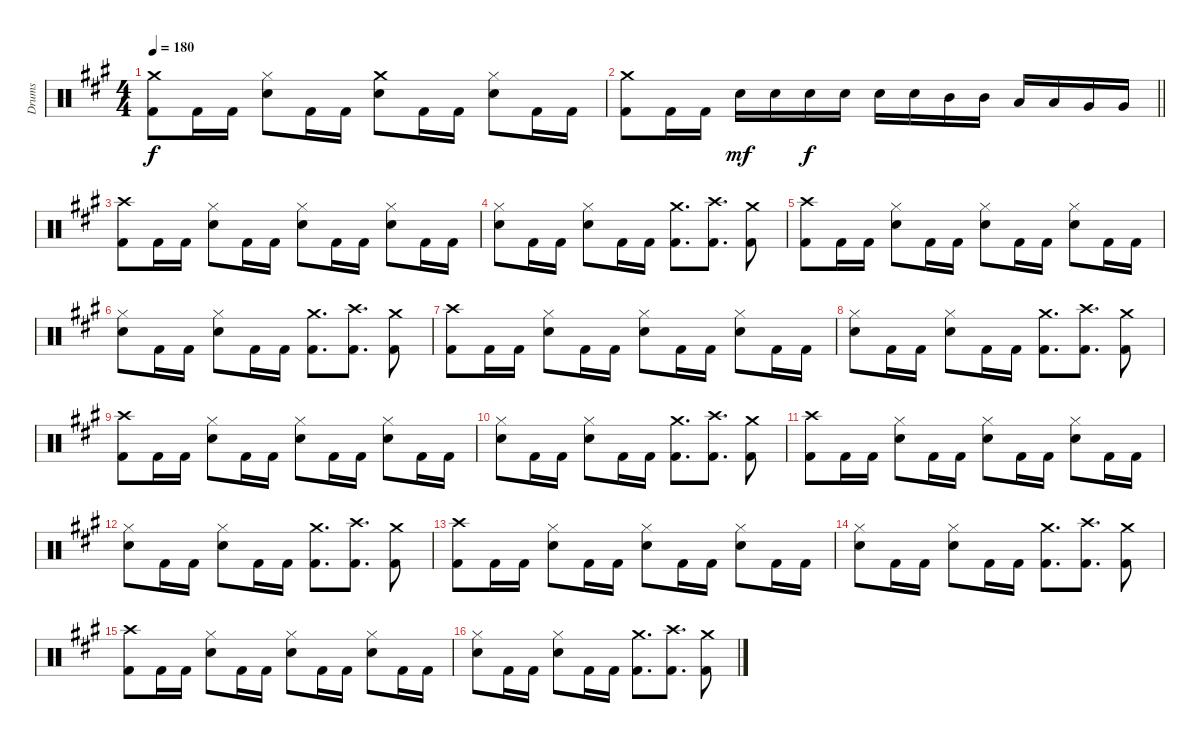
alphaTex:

\track ("Drums" "Drums") {instrument percussion}
\staff {score}
\articulation defaults
\ts (4 4)
\tempo 180
\clef neutral
\ks a
("Crash medium (hit)" "Kick (hit) 2").8{dy f} "Kick (hit) 2".16 "Kick (hit) 2".16 ("Hi-Hat (closed)" "Snare (hit) 2").8 "Kick (hit) 2".16 "Kick (hit) 2".16 ("Crash medium (hit)" "Snare (hit) 2").8 "Kick (hit) 2".16 "Kick (hit) 2".16 ("Hi-Hat (closed)" "Snare (hit) 2").8 "Kick (hit) 2".16 "Kick (hit) 2".16 |
\barLineRight lightlight
("Crash medium (hit)" "Kick (hit) 2").8 "Kick (hit) 2".16 "Kick (hit) 2".16 "Snare (hit) 2".16{dy mf} "Snare (hit) 2".16 "Snare (hit) 2".16{dy f} "Snare (hit) 2".16 "Snare (hit) 2".16 "Snare (hit) 2".16 "Mid Tom (hit)".16 "Mid Tom (hit)".16 "Low Tom (hit)".16 "Low Tom (hit)".16 "Very Low Tom (hit)".16 "Very Low Tom (hit)".16 |
("Crash high (hit)" "Kick (hit) 2").8 "Kick (hit) 2".16 "Kick (hit) 2".16 ("Hi-Hat (closed)" "Snare (hit) 2").8 "Kick (hit) 2".16 "Kick (hit) 2".16 ("Hi-Hat (closed)" "Snare (hit) 2").8 "Kick (hit) 2".16 "Kick (hit) 2".16 ("Hi-Hat (closed)" "Snare (hit) 2").8 "Kick (hit) 2".16 "Kick (hit) 2".16 |
("Hi-Hat (closed)" "Snare (hit) 2").8 "Kick (hit) 2".16 "Kick (hit) 2".16 ("Hi-Hat (closed)" "Snare (hit) 2").8 "Kick (hit) 2".16 "Kick (hit) 2".16 ("Crash medium (hit)" "Kick (hit) 2").8{d} ("Crash high (hit)" "Kick (hit) 2").8{d} ("Crash medium (hit)" "Kick (hit) 2").8 |
("Crash high (hit)" "Kick (hit) 2").8 "Kick (hit) 2".16 "Kick (hit) 2".16 ("Hi-Hat (closed)" "Snare (hit) 2").8 "Kick (hit) 2".16 "Kick (hit) 2".16 ("Hi-Hat (closed)" "Snare (hit) 2").8 "Kick (hit) 2".16 "Kick (hit) 2".16 ("Hi-Hat (closed)" "Snare (hit) 2").8 "Kick (hit) 2".16 "Kick (hit) 2".16 |
("Hi-Hat (closed)" "Snare (hit) 2").8 "Kick (hit) 2".16 "Kick (hit) 2".16 ("Hi-Hat (closed)" "Snare (hit) 2").8 "Kick (hit) 2".16 "Kick (hit) 2".16 ("Crash medium (hit)" "Kick (hit) 2").8{d} ("Crash high (hit)" "Kick (hit) 2").8{d} ("Crash medium (hit)" "Kick (hit) 2").8 |
("Crash high (hit)" "Kick (hit) 2").8 "Kick (hit) 2".16 "Kick (hit) 2".16 ("Hi-Hat (closed)" "Snare (hit) 2").8 "Kick (hit) 2".16 "Kick (hit) 2".16 ("Hi-Hat (closed)" "Snare (hit) 2").8 "Kick (hit) 2".16 "Kick (hit) 2".16 ("Hi-Hat (closed)" "Snare (hit) 2").8 "Kick (hit) 2".16 "Kick (hit) 2".16 |
("Hi-Hat (closed)" "Snare (hit) 2").8 "Kick (hit) 2".16 "Kick (hit) 2".16 ("Hi-Hat (closed)" "Snare (hit) 2").8 "Kick (hit) 2".16 "Kick (hit) 2".16 ("Crash medium (hit)" "Kick (hit) 2").8{d} ("Crash high (hit)" "Kick (hit) 2").8{d} ("Crash medium (hit)" "Kick (hit) 2").8 |
("Crash high (hit)" "Kick (hit) 2").8 "Kick (hit) 2".16 "Kick (hit) 2".16 ("Hi-Hat (closed)" "Snare (hit) 2").8 "Kick (hit) 2".16 "Kick (hit) 2".16 ("Hi-Hat (closed)" "Snare (hit) 2").8 "Kick (hit) 2".16 "Kick (hit) 2".16 ("Hi-Hat (closed)" "Snare (hit) 2").8 "Kick (hit) 2".16 "Kick (hit) 2".16 |
("Hi-Hat (closed)" "Snare (hit) 2").8 "Kick (hit) 2".16 "Kick (hit) 2".16 ("Hi-Hat (closed)" "Snare (hit) 2").8 "Kick (hit) 2".16 "Kick (hit) 2".16 ("Crash medium (hit)" "Kick (hit) 2").8{d} ("Crash high (hit)" "Kick (hit) 2").8{d} ("Crash medium (hit)" "Kick (hit) 2").8 |
("Crash high (hit)" "Kick (hit) 2").8 "Kick (hit) 2".16 "Kick (hit) 2".16 ("Hi-Hat (closed)" "Snare (hit) 2").8 "Kick (hit) 2".16 "Kick (hit) 2".16 ("Hi-Hat (closed)" "Snare (hit) 2").8 "Kick (hit) 2".16 "Kick (hit) 2".16 ("Hi-Hat (closed)" "Snare (hit) 2").8 "Kick (hit) 2".16 "Kick (hit) 2".16 |
("Hi-Hat (closed)" "Snare (hit) 2").8 "Kick (hit) 2".16 "Kick (hit) 2".16 ("Hi-Hat (closed)" "Snare (hit) 2").8 "Kick (hit) 2".16 "Kick (hit) 2".16 ("Crash medium (hit)" "Kick (hit) 2").8{d} ("Crash high (hit)" "Kick (hit) 2").8{d} ("Crash medium (hit)" "Kick (hit) 2").8 |
("Crash high (hit)" "Kick (hit) 2").8 "Kick (hit) 2".16 "Kick (hit) 2".16 ("Hi-Hat (closed)" "Snare (hit) 2").8 "Kick (hit) 2".16 "Kick (hit) 2".16 ("Hi-Hat (closed)" "Snare (hit) 2").8 "Kick (hit) 2".16 "Kick (hit) 2".16 ("Hi-Hat (closed)" "Snare (hit) 2").8 "Kick (hit) 2".16 "Kick (hit) 2".16 |
("Hi-Hat (closed)" "Snare (hit) 2").8 "Kick (hit) 2".16 "Kick (hit) 2".16 ("Hi-Hat (closed)" "Snare (hit) 2").8 "Kick (hit) 2".16 "Kick (hit) 2".16 ("Crash medium (hit)" "Kick (hit) 2").8{d} ("Crash high (hit)" "Kick (hit) 2").8{d} ("Crash medium (hit)" "Kick (hit) 2").8 |
("Crash high (hit)" "Kick (hit) 2").8 "Kick (hit) 2".16 "Kick (hit) 2".16 ("Hi-Hat (closed)" "Snare (hit) 2").8 "Kick (hit) 2".16 "Kick (hit) 2".16 ("Hi-Hat (closed)" "Snare (hit) 2").8 "Kick (hit) 2".16 "Kick (hit) 2".16 ("Hi-Hat (closed)" "Snare (hit) 2").8 "Kick (hit) 2".16 "Kick (hit) 2".16 |
("Hi-Hat (closed)" "Snare (hit) 2").8 "Kick (hit) 2".16 "Kick (hit) 2".16 ("Hi-Hat (closed)" "Snare (hit) 2").8 "Kick (hit) 2".16 "Kick (hit) 2".16 ("Crash medium (hit)" "Kick (hit) 2").8{d} ("Crash high (hit)" "Kick (hit) 2").8{d} ("Crash medium (hit)" "Kick (hit) 2").8
